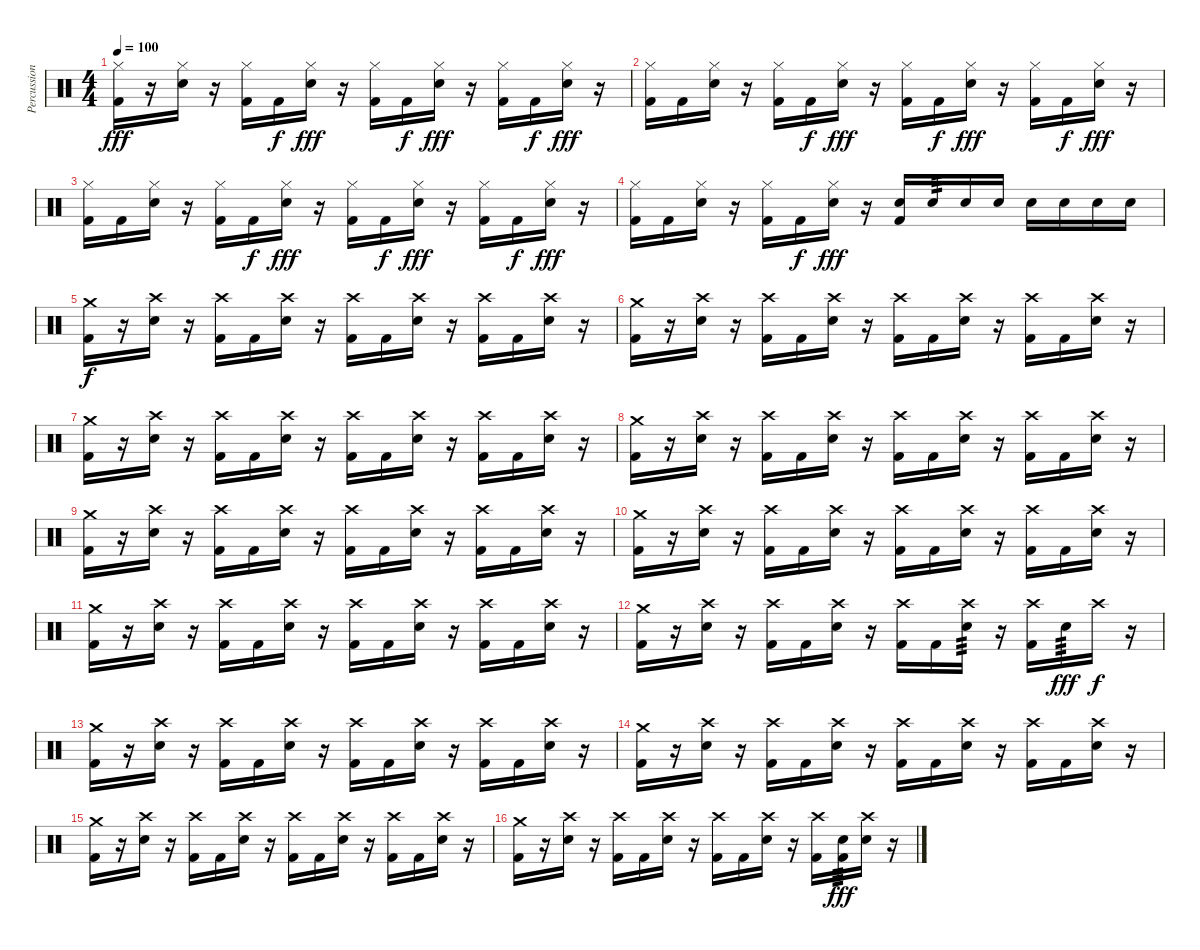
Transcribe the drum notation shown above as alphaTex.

\track ("Percussion" "Percussion") {instrument percussion}
\staff {score}
\articulation defaults
\ts (4 4)
\tempo 100
\clef neutral
\ks c
("Hi-Hat (closed)" "Kick (hit) 2").16{dy fff} r.16 ("Hi-Hat (closed)" "Electric Snare (hit)").16 r.16 ("Hi-Hat (closed)" "Kick (hit) 2").16 "Kick (hit) 2".16{dy f} ("Hi-Hat (closed)" "Electric Snare (hit)").16{dy fff} r.16 ("Hi-Hat (closed)" "Kick (hit) 2").16 "Kick (hit) 2".16{dy f} ("Hi-Hat (closed)" "Electric Snare (hit)").16{dy fff} r.16 ("Hi-Hat (closed)" "Kick (hit) 2").16 "Kick (hit) 2".16{dy f} ("Hi-Hat (closed)" "Electric Snare (hit)").16{dy fff} r.16 |
("Hi-Hat (closed)" "Kick (hit) 2").16 "Kick (hit) 2".16 ("Hi-Hat (closed)" "Electric Snare (hit)").16 r.16 ("Hi-Hat (closed)" "Kick (hit) 2").16 "Kick (hit) 2".16{dy f} ("Hi-Hat (closed)" "Electric Snare (hit)").16{dy fff} r.16 ("Hi-Hat (closed)" "Kick (hit) 2").16 "Kick (hit) 2".16{dy f} ("Hi-Hat (closed)" "Electric Snare (hit)").16{dy fff} r.16 ("Hi-Hat (closed)" "Kick (hit) 2").16 "Kick (hit) 2".16{dy f} ("Hi-Hat (closed)" "Electric Snare (hit)").16{dy fff} r.16 |
("Hi-Hat (closed)" "Kick (hit) 2").16 "Kick (hit) 2".16 ("Hi-Hat (closed)" "Electric Snare (hit)").16 r.16 ("Hi-Hat (closed)" "Kick (hit) 2").16 "Kick (hit) 2".16{dy f} ("Hi-Hat (closed)" "Electric Snare (hit)").16{dy fff} r.16 ("Hi-Hat (closed)" "Kick (hit) 2").16 "Kick (hit) 2".16{dy f} ("Hi-Hat (closed)" "Electric Snare (hit)").16{dy fff} r.16 ("Hi-Hat (closed)" "Kick (hit) 2").16 "Kick (hit) 2".16{dy f} ("Hi-Hat (closed)" "Electric Snare (hit)").16{dy fff} r.16 |
("Hi-Hat (closed)" "Kick (hit) 2").16 "Kick (hit) 2".16 ("Hi-Hat (closed)" "Electric Snare (hit)").16 r.16 ("Hi-Hat (closed)" "Kick (hit) 2").16 "Kick (hit) 2".16{dy f} ("Hi-Hat (closed)" "Electric Snare (hit)").16{dy fff} r.16 ("Electric Snare (hit)" "Kick (hit) 2").16 "Electric Snare (hit)".16{tp 3} "Electric Snare (hit)".16 "Electric Snare (hit)".16 "Electric Snare (hit)".16 "Electric Snare (hit)".16 "Electric Snare (hit)".16 "Electric Snare (hit)".16 |
("Crash medium (hit)" "Kick (hit) 2").16{dy f} r.16 ("Crash high (hit)" "Electric Snare (hit)").16 r.16 ("Crash high (hit)" "Kick (hit) 2").16 "Kick (hit) 2".16 ("Crash high (hit)" "Electric Snare (hit)").16 r.16 ("Crash high (hit)" "Kick (hit) 2").16 "Kick (hit) 2".16 ("Crash high (hit)" "Electric Snare (hit)").16 r.16 ("Crash high (hit)" "Kick (hit) 2").16 "Kick (hit) 2".16 ("Crash high (hit)" "Electric Snare (hit)").16 r.16 |
("Crash medium (hit)" "Kick (hit) 2").16 r.16 ("Crash high (hit)" "Electric Snare (hit)").16 r.16 ("Crash high (hit)" "Kick (hit) 2").16 "Kick (hit) 2".16 ("Crash high (hit)" "Electric Snare (hit)").16 r.16 ("Crash high (hit)" "Kick (hit) 2").16 "Kick (hit) 2".16 ("Crash high (hit)" "Electric Snare (hit)").16 r.16 ("Crash high (hit)" "Kick (hit) 2").16 "Kick (hit) 2".16 ("Crash high (hit)" "Electric Snare (hit)").16 r.16 |
("Crash medium (hit)" "Kick (hit) 2").16 r.16 ("Crash high (hit)" "Electric Snare (hit)").16 r.16 ("Crash high (hit)" "Kick (hit) 2").16 "Kick (hit) 2".16 ("Crash high (hit)" "Electric Snare (hit)").16 r.16 ("Crash high (hit)" "Kick (hit) 2").16 "Kick (hit) 2".16 ("Crash high (hit)" "Electric Snare (hit)").16 r.16 ("Crash high (hit)" "Kick (hit) 2").16 "Kick (hit) 2".16 ("Crash high (hit)" "Electric Snare (hit)").16 r.16 |
("Crash medium (hit)" "Kick (hit) 2").16 r.16 ("Crash high (hit)" "Electric Snare (hit)").16 r.16 ("Crash high (hit)" "Kick (hit) 2").16 "Kick (hit) 2".16 ("Crash high (hit)" "Electric Snare (hit)").16 r.16 ("Crash high (hit)" "Kick (hit) 2").16 "Kick (hit) 2".16 ("Crash high (hit)" "Electric Snare (hit)").16 r.16 ("Crash high (hit)" "Kick (hit) 2").16 "Kick (hit) 2".16 ("Crash high (hit)" "Electric Snare (hit)").16 r.16 |
("Crash medium (hit)" "Kick (hit) 2").16 r.16 ("Crash high (hit)" "Electric Snare (hit)").16 r.16 ("Crash high (hit)" "Kick (hit) 2").16 "Kick (hit) 2".16 ("Crash high (hit)" "Electric Snare (hit)").16 r.16 ("Crash high (hit)" "Kick (hit) 2").16 "Kick (hit) 2".16 ("Crash high (hit)" "Electric Snare (hit)").16 r.16 ("Crash high (hit)" "Kick (hit) 2").16 "Kick (hit) 2".16 ("Crash high (hit)" "Electric Snare (hit)").16 r.16 |
("Crash medium (hit)" "Kick (hit) 2").16 r.16 ("Crash high (hit)" "Electric Snare (hit)").16 r.16 ("Crash high (hit)" "Kick (hit) 2").16 "Kick (hit) 2".16 ("Crash high (hit)" "Electric Snare (hit)").16 r.16 ("Crash high (hit)" "Kick (hit) 2").16 "Kick (hit) 2".16 ("Crash high (hit)" "Electric Snare (hit)").16 r.16 ("Crash high (hit)" "Kick (hit) 2").16 "Kick (hit) 2".16 ("Crash high (hit)" "Electric Snare (hit)").16 r.16 |
("Crash medium (hit)" "Kick (hit) 2").16 r.16 ("Crash high (hit)" "Electric Snare (hit)").16 r.16 ("Crash high (hit)" "Kick (hit) 2").16 "Kick (hit) 2".16 ("Crash high (hit)" "Electric Snare (hit)").16 r.16 ("Crash high (hit)" "Kick (hit) 2").16 "Kick (hit) 2".16 ("Crash high (hit)" "Electric Snare (hit)").16 r.16 ("Crash high (hit)" "Kick (hit) 2").16 "Kick (hit) 2".16 ("Crash high (hit)" "Electric Snare (hit)").16 r.16 |
("Crash medium (hit)" "Kick (hit) 2").16 r.16 ("Crash high (hit)" "Electric Snare (hit)").16 r.16 ("Crash high (hit)" "Kick (hit) 2").16 "Kick (hit) 2".16 ("Crash high (hit)" "Electric Snare (hit)").16 r.16 ("Crash high (hit)" "Kick (hit) 2").16 "Kick (hit) 2".16 ("Crash high (hit)" "Electric Snare (hit)").16{tp 3} r.16 ("Crash high (hit)" "Kick (hit) 2").16 "Electric Snare (hit)".16{tp 3 dy fff} "Crash high (hit)".16{dy f} r.16 |
("Crash medium (hit)" "Kick (hit) 2").16 r.16 ("Crash high (hit)" "Electric Snare (hit)").16 r.16 ("Crash high (hit)" "Kick (hit) 2").16 "Kick (hit) 2".16 ("Crash high (hit)" "Electric Snare (hit)").16 r.16 ("Crash high (hit)" "Kick (hit) 2").16 "Kick (hit) 2".16 ("Crash high (hit)" "Electric Snare (hit)").16 r.16 ("Crash high (hit)" "Kick (hit) 2").16 "Kick (hit) 2".16 ("Crash high (hit)" "Electric Snare (hit)").16 r.16 |
("Crash medium (hit)" "Kick (hit) 2").16 r.16 ("Crash high (hit)" "Electric Snare (hit)").16 r.16 ("Crash high (hit)" "Kick (hit) 2").16 "Kick (hit) 2".16 ("Crash high (hit)" "Electric Snare (hit)").16 r.16 ("Crash high (hit)" "Kick (hit) 2").16 "Kick (hit) 2".16 ("Crash high (hit)" "Electric Snare (hit)").16 r.16 ("Crash high (hit)" "Kick (hit) 2").16 "Kick (hit) 2".16 ("Crash high (hit)" "Electric Snare (hit)").16 r.16 |
("Crash medium (hit)" "Kick (hit) 2").16 r.16 ("Crash high (hit)" "Electric Snare (hit)").16 r.16 ("Crash high (hit)" "Kick (hit) 2").16 "Kick (hit) 2".16 ("Crash high (hit)" "Electric Snare (hit)").16 r.16 ("Crash high (hit)" "Kick (hit) 2").16 "Kick (hit) 2".16 ("Crash high (hit)" "Electric Snare (hit)").16 r.16 ("Crash high (hit)" "Kick (hit) 2").16 "Kick (hit) 2".16 ("Crash high (hit)" "Electric Snare (hit)").16 r.16 |
("Crash medium (hit)" "Kick (hit) 2").16 r.16 ("Crash high (hit)" "Electric Snare (hit)").16 r.16 ("Crash high (hit)" "Kick (hit) 2").16 "Kick (hit) 2".16 ("Crash high (hit)" "Electric Snare (hit)").16 r.16 ("Crash high (hit)" "Kick (hit) 2").16 "Kick (hit) 2".16 ("Crash high (hit)" "Electric Snare (hit)").16 r.16 ("Crash high (hit)" "Kick (hit) 2").16 ("Electric Snare (hit)" "Kick (hit) 2").16{tp 3 dy fff} ("Crash high (hit)" "Electric Snare (hit)").16 r.16
